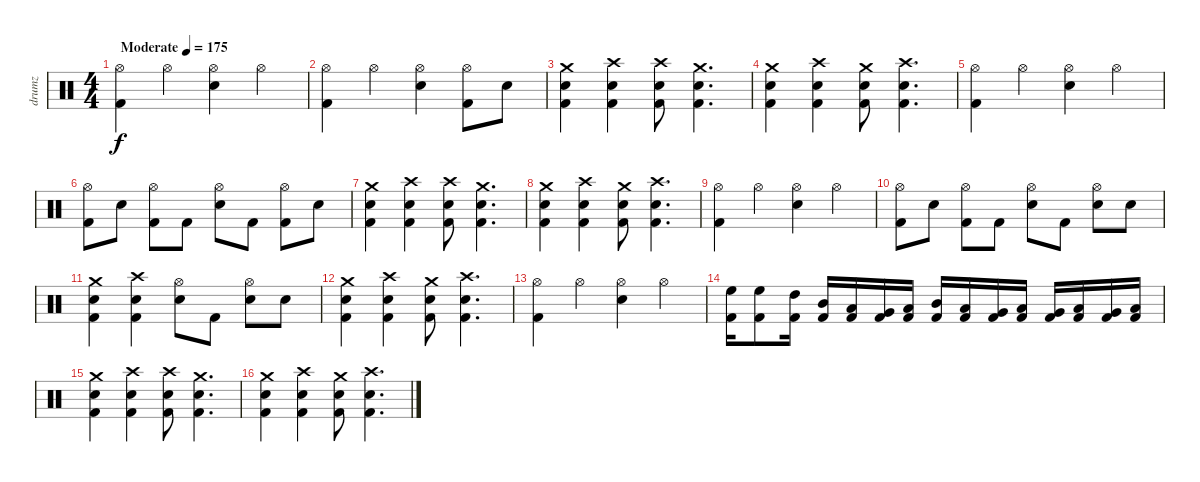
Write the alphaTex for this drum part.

\track ("drumz" "drumz") {instrument percussion}
\staff {score}
\articulation defaults
\ts (4 4)
\tempo (175 "Moderate")
\clef neutral
\ks c
("Hi-Hat (open)" "Kick (hit) 2").4{dy f} "Hi-Hat (open)".4 ("Hi-Hat (open)" "Electric Snare (hit)").4 "Hi-Hat (open)".4 |
("Hi-Hat (open)" "Kick (hit) 2").4 "Hi-Hat (open)".4 ("Hi-Hat (open)" "Electric Snare (hit)").4 ("Hi-Hat (open)" "Kick (hit) 2").8 "Electric Snare (hit)".8 |
("Crash medium (hit)" "Electric Snare (hit)" "Kick (hit) 2").4 ("Crash high (hit)" "Electric Snare (hit)" "Kick (hit) 2").4 ("Crash high (hit)" "Electric Snare (hit)" "Kick (hit) 2").8 ("Crash medium (hit)" "Electric Snare (hit)" "Kick (hit) 2").4{d} |
("Crash medium (hit)" "Electric Snare (hit)" "Kick (hit) 2").4 ("Crash high (hit)" "Electric Snare (hit)" "Kick (hit) 2").4 ("Crash medium (hit)" "Electric Snare (hit)" "Kick (hit) 2").8 ("Crash high (hit)" "Electric Snare (hit)" "Kick (hit) 2").4{d} |
("Hi-Hat (open)" "Kick (hit) 2").4 "Hi-Hat (open)".4 ("Hi-Hat (open)" "Electric Snare (hit)").4 "Hi-Hat (open)".4 |
("Hi-Hat (open)" "Kick (hit) 2").8 "Electric Snare (hit)".8 ("Hi-Hat (open)" "Kick (hit) 2").8 "Kick (hit) 2".8 ("Hi-Hat (open)" "Electric Snare (hit)").8 "Kick (hit) 2".8 ("Hi-Hat (open)" "Kick (hit) 2").8 "Electric Snare (hit)".8 |
("Crash medium (hit)" "Electric Snare (hit)" "Kick (hit) 2").4 ("Crash high (hit)" "Electric Snare (hit)" "Kick (hit) 2").4 ("Crash high (hit)" "Electric Snare (hit)" "Kick (hit) 2").8 ("Crash medium (hit)" "Electric Snare (hit)" "Kick (hit) 2").4{d} |
("Crash medium (hit)" "Electric Snare (hit)" "Kick (hit) 2").4 ("Crash high (hit)" "Electric Snare (hit)" "Kick (hit) 2").4 ("Crash medium (hit)" "Electric Snare (hit)" "Kick (hit) 2").8 ("Crash high (hit)" "Electric Snare (hit)" "Kick (hit) 2").4{d} |
("Hi-Hat (open)" "Kick (hit) 2").4 "Hi-Hat (open)".4 ("Hi-Hat (open)" "Electric Snare (hit)").4 "Hi-Hat (open)".4 |
("Hi-Hat (open)" "Kick (hit) 2").8 "Electric Snare (hit)".8 ("Hi-Hat (open)" "Kick (hit) 2").8 "Kick (hit) 2".8 ("Hi-Hat (open)" "Electric Snare (hit)").8 "Kick (hit) 2".8 ("Hi-Hat (open)" "Electric Snare (hit)").8 "Electric Snare (hit)".8 |
("Crash medium (hit)" "Electric Snare (hit)" "Kick (hit) 2").4 ("Crash high (hit)" "Electric Snare (hit)" "Kick (hit) 2").4 ("Hi-Hat (open)" "Electric Snare (hit)").8 "Kick (hit) 2".8 ("Hi-Hat (open)" "Electric Snare (hit)").8 "Electric Snare (hit)".8 |
("Crash medium (hit)" "Electric Snare (hit)" "Kick (hit) 2").4 ("Crash high (hit)" "Electric Snare (hit)" "Kick (hit) 2").4 ("Crash medium (hit)" "Electric Snare (hit)" "Kick (hit) 2").8 ("Crash high (hit)" "Electric Snare (hit)" "Kick (hit) 2").4{d} |
("Hi-Hat (open)" "Kick (hit) 2").4 "Hi-Hat (open)".4 ("Hi-Hat (open)" "Electric Snare (hit)").4 "Hi-Hat (open)".4 |
("High Floor Tom (hit)" "Kick (hit) 2").16 ("High Floor Tom (hit)" "Kick (hit) 2").8 ("High Tom (hit)" "Kick (hit) 2").16 ("Mid Tom (hit)" "Kick (hit) 2").16 ("Low Tom (hit)" "Kick (hit) 2").16 ("Very Low Tom (hit)" "Kick (hit) 2").16 ("Low Floor Tom (hit)" "Kick (hit) 2").16 ("Mid Tom (hit)" "Kick (hit) 2").16 ("Low Tom (hit)" "Kick (hit) 2").16 ("Very Low Tom (hit)" "Kick (hit) 2").16 ("Low Tom (hit)" "Kick (hit) 2").16 ("Very Low Tom (hit)" "Kick (hit) 2").16 ("Low Floor Tom (hit)" "Kick (hit) 2").16 ("Very Low Tom (hit)" "Kick (hit) 2").16 ("Low Floor Tom (hit)" "Kick (hit) 2").16 |
("Crash medium (hit)" "Electric Snare (hit)" "Kick (hit) 2").4 ("Crash high (hit)" "Electric Snare (hit)" "Kick (hit) 2").4 ("Crash high (hit)" "Electric Snare (hit)" "Kick (hit) 2").8 ("Crash medium (hit)" "Electric Snare (hit)" "Kick (hit) 2").4{d} |
("Crash medium (hit)" "Electric Snare (hit)" "Kick (hit) 2").4 ("Crash high (hit)" "Electric Snare (hit)" "Kick (hit) 2").4 ("Crash medium (hit)" "Electric Snare (hit)" "Kick (hit) 2").8 ("Crash high (hit)" "Electric Snare (hit)" "Kick (hit) 2").4{d}
